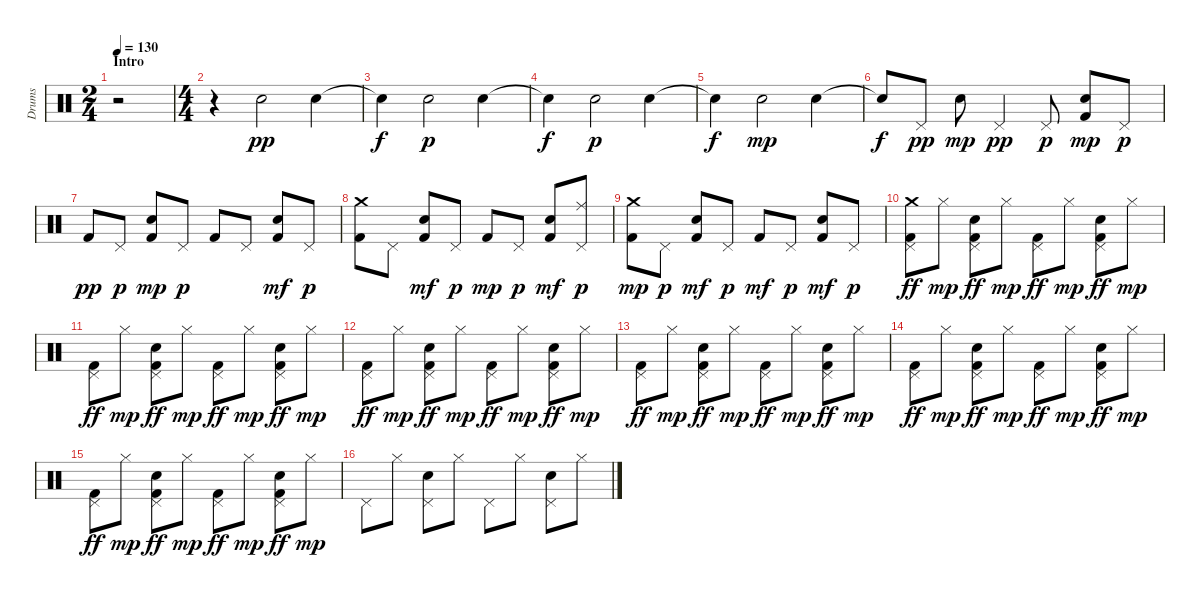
\track ("Drums" "Drums") {instrument percussion}
\staff {score}
\articulation defaults
\ts (2 4)
\section ("" "Intro")
\tempo 130
\clef neutral
\ks c
r.2{dy pp} |
\ts (4 4)
r.4 "Hand Clap (hit)".2 "Hand Clap (hit)".4 |
"Snare (hit)"{t}.4{dy f} "Hand Clap (hit)".2{dy p} "Hand Clap (hit)".4 |
"Snare (hit)"{t}.4{dy f} "Hand Clap (hit)".2{dy p} "Hand Clap (hit)".4 |
"Snare (hit)"{t}.4{dy f} "Hand Clap (hit)".2{dy mp} "Hand Clap (hit)".4 |
"Snare (hit)"{t}.8{dy f} "Pedal Hi-Hat (hit)".8{dy pp} "Hand Clap (hit)".8{dy mp} "Pedal Hi-Hat (hit)".4{dy pp} "Pedal Hi-Hat (hit)".8{dy p} ("Kick (hit) 2" "Hand Clap (hit)").8{dy mp} "Pedal Hi-Hat (hit)".8{dy p} |
"Kick (hit) 2".8{dy pp} "Pedal Hi-Hat (hit)".8{dy p} ("Kick (hit) 2" "Hand Clap (hit)").8{dy mp} "Pedal Hi-Hat (hit)".8{dy p} "Kick (hit) 2".8 "Pedal Hi-Hat (hit)".8 ("Kick (hit) 2" "Hand Clap (hit)").8{dy mf} "Pedal Hi-Hat (hit)".8{dy p} |
("Crash medium (hit)" "Kick (hit) 2").8 "Pedal Hi-Hat (hit)".8 ("Kick (hit) 2" "Hand Clap (hit)").8{dy mf} "Pedal Hi-Hat (hit)".8{dy p} "Kick (hit) 2".8{dy mp} "Pedal Hi-Hat (hit)".8{dy p} ("Kick (hit) 2" "Hand Clap (hit)").8{dy mf} ("Ride (middle)" "Pedal Hi-Hat (hit)").8{dy p} |
("Crash medium (hit)" "Kick (hit) 2").8{dy mp} "Pedal Hi-Hat (hit)".8{dy p} ("Snare (hit) 2" "Kick (hit) 2").8{dy mf} "Pedal Hi-Hat (hit)".8{dy p} "Kick (hit) 2".8{dy mf} "Pedal Hi-Hat (hit)".8{dy p} ("Snare (hit) 2" "Kick (hit) 2").8{dy mf} "Pedal Hi-Hat (hit)".8{dy p} |
("Crash medium (hit)" "Pedal Hi-Hat (hit)" "Kick (hit) 2").8{dy ff} "Hi-Hat (closed)".8{dy mp} ("Electric Snare (hit)" "Pedal Hi-Hat (hit)" "Kick (hit) 2").8{dy ff} "Hi-Hat (closed)".8{dy mp} ("Pedal Hi-Hat (hit)" "Kick (hit) 2").8{dy ff} "Hi-Hat (closed)".8{dy mp} ("Electric Snare (hit)" "Pedal Hi-Hat (hit)" "Kick (hit) 2").8{dy ff} "Hi-Hat (closed)".8{dy mp} |
("Pedal Hi-Hat (hit)" "Kick (hit) 2").8{dy ff} "Hi-Hat (closed)".8{dy mp} ("Electric Snare (hit)" "Pedal Hi-Hat (hit)" "Kick (hit) 2").8{dy ff} "Hi-Hat (closed)".8{dy mp} ("Pedal Hi-Hat (hit)" "Kick (hit) 2").8{dy ff} "Hi-Hat (closed)".8{dy mp} ("Electric Snare (hit)" "Pedal Hi-Hat (hit)" "Kick (hit) 2").8{dy ff} "Hi-Hat (closed)".8{dy mp} |
("Pedal Hi-Hat (hit)" "Kick (hit) 2").8{dy ff} "Hi-Hat (closed)".8{dy mp} ("Electric Snare (hit)" "Pedal Hi-Hat (hit)" "Kick (hit) 2").8{dy ff} "Hi-Hat (closed)".8{dy mp} ("Pedal Hi-Hat (hit)" "Kick (hit) 2").8{dy ff} "Hi-Hat (closed)".8{dy mp} ("Electric Snare (hit)" "Pedal Hi-Hat (hit)" "Kick (hit) 2").8{dy ff} "Hi-Hat (closed)".8{dy mp} |
("Pedal Hi-Hat (hit)" "Kick (hit) 2").8{dy ff} "Hi-Hat (closed)".8{dy mp} ("Electric Snare (hit)" "Pedal Hi-Hat (hit)" "Kick (hit) 2").8{dy ff} "Hi-Hat (closed)".8{dy mp} ("Pedal Hi-Hat (hit)" "Kick (hit) 2").8{dy ff} "Hi-Hat (closed)".8{dy mp} ("Electric Snare (hit)" "Pedal Hi-Hat (hit)" "Kick (hit) 2").8{dy ff} "Hi-Hat (closed)".8{dy mp} |
("Pedal Hi-Hat (hit)" "Kick (hit) 2").8{dy ff} "Hi-Hat (closed)".8{dy mp} ("Electric Snare (hit)" "Pedal Hi-Hat (hit)" "Kick (hit) 2").8{dy ff} "Hi-Hat (closed)".8{dy mp} ("Pedal Hi-Hat (hit)" "Kick (hit) 2").8{dy ff} "Hi-Hat (closed)".8{dy mp} ("Electric Snare (hit)" "Pedal Hi-Hat (hit)" "Kick (hit) 2").8{dy ff} "Hi-Hat (closed)".8{dy mp} |
("Pedal Hi-Hat (hit)" "Kick (hit) 2").8{dy ff} "Hi-Hat (closed)".8{dy mp} ("Electric Snare (hit)" "Pedal Hi-Hat (hit)" "Kick (hit) 2").8{dy ff} "Hi-Hat (closed)".8{dy mp} ("Pedal Hi-Hat (hit)" "Kick (hit) 2").8{dy ff} "Hi-Hat (closed)".8{dy mp} ("Electric Snare (hit)" "Pedal Hi-Hat (hit)" "Kick (hit) 2").8{dy ff} "Hi-Hat (closed)".8{dy mp} |
"Pedal Hi-Hat (hit)".8 "Hi-Hat (closed)".8 ("Electric Snare (hit)" "Pedal Hi-Hat (hit)").8 "Hi-Hat (closed)".8 "Pedal Hi-Hat (hit)".8 "Hi-Hat (closed)".8 ("Electric Snare (hit)" "Pedal Hi-Hat (hit)").8 "Hi-Hat (closed)".8
